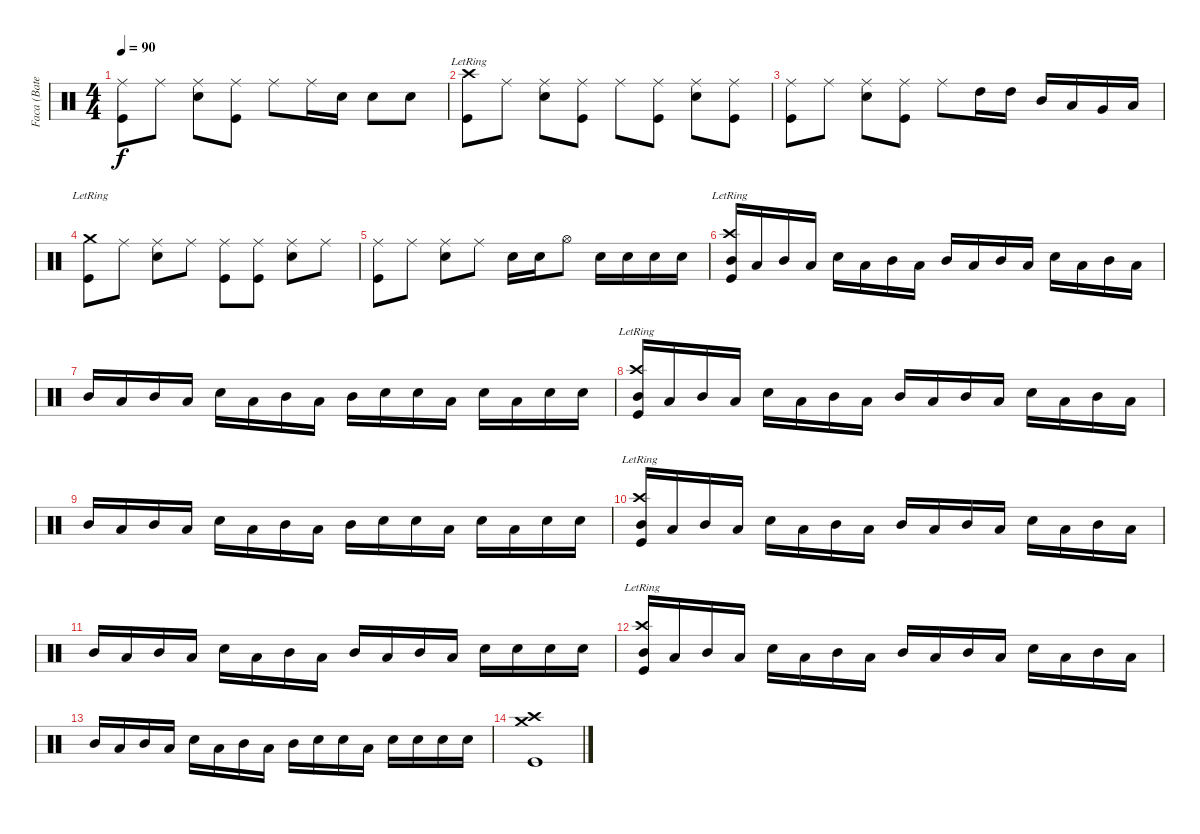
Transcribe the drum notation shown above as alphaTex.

\track ("Faca (Bateria)" "Faca (Bate") {instrument percussion}
\staff {score}
\articulation defaults
\ts (4 4)
\tempo 90
\clef neutral
\ks c
("Ride (middle)" "Kick (hit)").8{dy f} "Ride (middle)".8 ("Ride (middle)" "Snare (hit) 2").8 ("Ride (middle)" "Kick (hit)").8 "Ride (middle)".8 "Ride (middle)".16 "Snare (hit) 2".16 "Snare (hit) 2".8 "Snare (hit) 2".8 |
("Crash high (hit)"{lr} "Kick (hit)").8 "Ride (middle)".8 ("Ride (middle)" "Snare (hit) 2").8 ("Ride (middle)" "Kick (hit)").8 "Ride (middle)".8 ("Ride (middle)" "Kick (hit)").8 ("Ride (middle)" "Snare (hit) 2").8 ("Ride (middle)" "Kick (hit)").8 |
("Ride (middle)" "Kick (hit)").8 "Ride (middle)".8 ("Ride (middle)" "Snare (hit) 2").8 ("Ride (middle)" "Kick (hit)").8 "Ride (middle)".8 "High Tom (hit)".16 "High Tom (hit)".16 "Mid Tom (hit)".16 "Low Tom (hit)".16 "Very Low Tom (hit)".16 "Low Floor Tom (hit)".16 |
("Crash medium (hit)"{lr} "Kick (hit)").8 "Ride (middle)".8 ("Ride (middle)" "Snare (hit) 2").8 "Ride (middle)".8 ("Ride (middle)" "Kick (hit)").8 ("Ride (middle)" "Kick (hit)").8 ("Ride (middle)" "Snare (hit) 2").8 "Ride (middle)".8 |
("Ride (middle)" "Kick (hit)").8 "Ride (middle)".8 ("Ride (middle)" "Snare (hit) 2").8 "Ride (middle)".8 "Snare (hit) 2".16 "Snare (hit) 2".16 "Hi-Hat (open)".8 "Snare (hit) 2".16 "Snare (hit) 2".16 "Snare (hit) 2".16 "Snare (hit) 2".16 |
("Crash high (hit)"{lr} "Mid Tom (hit)" "Kick (hit)").16 "Low Tom (hit)".16 "Mid Tom (hit)".16 "Low Tom (hit)".16 "Snare (hit) 2".16 "Low Tom (hit)".16 "Mid Tom (hit)".16 "Low Tom (hit)".16 "Mid Tom (hit)".16 "Low Tom (hit)".16 "Mid Tom (hit)".16 "Low Tom (hit)".16 "Snare (hit) 2".16 "Low Tom (hit)".16 "Mid Tom (hit)".16 "Low Tom (hit)".16 |
"Mid Tom (hit)".16 "Low Tom (hit)".16 "Mid Tom (hit)".16 "Low Tom (hit)".16 "Snare (hit) 2".16 "Low Tom (hit)".16 "Mid Tom (hit)".16 "Low Tom (hit)".16 "Mid Tom (hit)".16 "Snare (hit) 2".16 "Snare (hit) 2".16 "Low Tom (hit)".16 "Snare (hit) 2".16 "Low Tom (hit)".16 "Snare (hit) 2".16 "Snare (hit) 2".16 |
("Crash high (hit)"{lr} "Mid Tom (hit)" "Kick (hit)").16 "Low Tom (hit)".16 "Mid Tom (hit)".16 "Low Tom (hit)".16 "Snare (hit) 2".16 "Low Tom (hit)".16 "Mid Tom (hit)".16 "Low Tom (hit)".16 "Mid Tom (hit)".16 "Low Tom (hit)".16 "Mid Tom (hit)".16 "Low Tom (hit)".16 "Snare (hit) 2".16 "Low Tom (hit)".16 "Mid Tom (hit)".16 "Low Tom (hit)".16 |
"Mid Tom (hit)".16 "Low Tom (hit)".16 "Mid Tom (hit)".16 "Low Tom (hit)".16 "Snare (hit) 2".16 "Low Tom (hit)".16 "Mid Tom (hit)".16 "Low Tom (hit)".16 "Mid Tom (hit)".16 "Snare (hit) 2".16 "Snare (hit) 2".16 "Low Tom (hit)".16 "Snare (hit) 2".16 "Low Tom (hit)".16 "Snare (hit) 2".16 "Snare (hit) 2".16 |
("Crash high (hit)"{lr} "Mid Tom (hit)" "Kick (hit)").16 "Low Tom (hit)".16 "Mid Tom (hit)".16 "Low Tom (hit)".16 "Snare (hit) 2".16 "Low Tom (hit)".16 "Mid Tom (hit)".16 "Low Tom (hit)".16 "Mid Tom (hit)".16 "Low Tom (hit)".16 "Mid Tom (hit)".16 "Low Tom (hit)".16 "Snare (hit) 2".16 "Low Tom (hit)".16 "Mid Tom (hit)".16 "Low Tom (hit)".16 |
"Mid Tom (hit)".16 "Low Tom (hit)".16 "Mid Tom (hit)".16 "Low Tom (hit)".16 "Snare (hit) 2".16 "Low Tom (hit)".16 "Mid Tom (hit)".16 "Low Tom (hit)".16 "Mid Tom (hit)".16 "Low Tom (hit)".16 "Mid Tom (hit)".16 "Low Tom (hit)".16 "Snare (hit) 2".16 "Snare (hit) 2".16 "Snare (hit) 2".16 "Snare (hit) 2".16 |
("Crash high (hit)"{lr} "Mid Tom (hit)" "Kick (hit)").16 "Low Tom (hit)".16 "Mid Tom (hit)".16 "Low Tom (hit)".16 "Snare (hit) 2".16 "Low Tom (hit)".16 "Mid Tom (hit)".16 "Low Tom (hit)".16 "Mid Tom (hit)".16 "Low Tom (hit)".16 "Mid Tom (hit)".16 "Low Tom (hit)".16 "Snare (hit) 2".16 "Low Tom (hit)".16 "Mid Tom (hit)".16 "Low Tom (hit)".16 |
"Mid Tom (hit)".16 "Low Tom (hit)".16 "Mid Tom (hit)".16 "Low Tom (hit)".16 "Snare (hit) 2".16 "Low Tom (hit)".16 "Mid Tom (hit)".16 "Low Tom (hit)".16 "Mid Tom (hit)".16 "Snare (hit) 2".16 "Snare (hit) 2".16 "Low Tom (hit)".16 "Snare (hit) 2".16 "Snare (hit) 2".16 "Snare (hit) 2".16 "Snare (hit) 2".16 |
("Crash high (hit)" "Crash medium (hit)" "Kick (hit)").1
